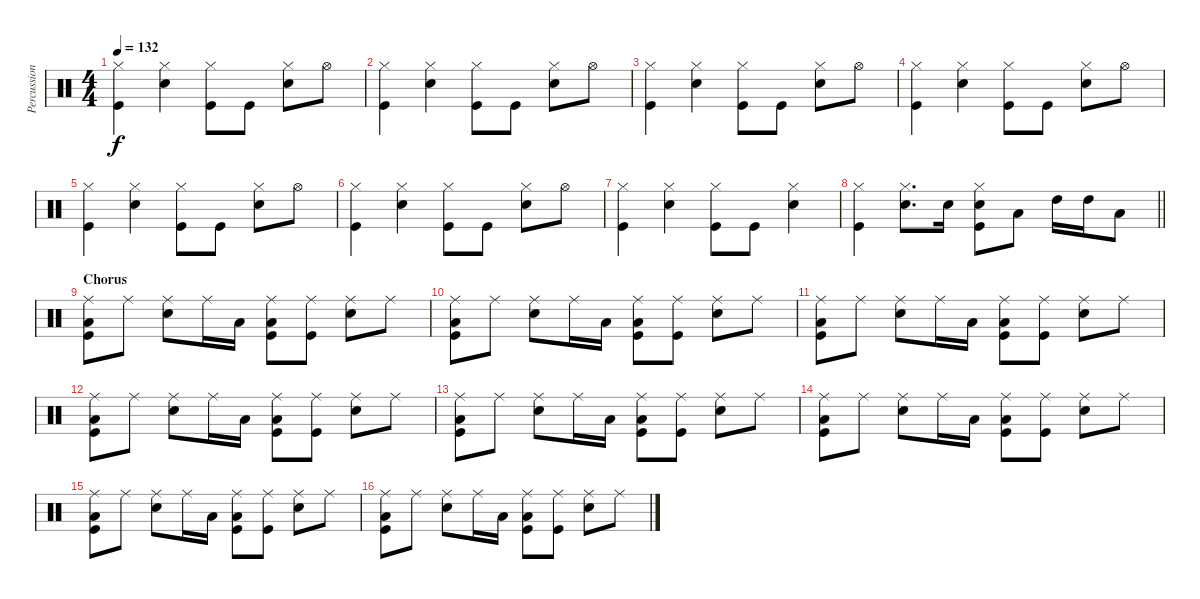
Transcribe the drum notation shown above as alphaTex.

\track ("Percussion" "Percussion") {instrument percussion}
\staff {score}
\articulation defaults
\ts (4 4)
\tempo 132
\clef neutral
\ks c
("Hi-Hat (closed)" "Kick (hit)").4{dy f} ("Hi-Hat (closed)" "Snare (hit) 2").4 ("Hi-Hat (closed)" "Kick (hit)").8 "Kick (hit)".8 ("Hi-Hat (closed)" "Snare (hit) 2").8 "Hi-Hat (open)".8 |
("Hi-Hat (closed)" "Kick (hit)").4 ("Hi-Hat (closed)" "Snare (hit) 2").4 ("Hi-Hat (closed)" "Kick (hit)").8 "Kick (hit)".8 ("Hi-Hat (closed)" "Snare (hit) 2").8 "Hi-Hat (open)".8 |
("Hi-Hat (closed)" "Kick (hit)").4 ("Hi-Hat (closed)" "Snare (hit) 2").4 ("Hi-Hat (closed)" "Kick (hit)").8 "Kick (hit)".8 ("Hi-Hat (closed)" "Snare (hit) 2").8 "Hi-Hat (open)".8 |
("Hi-Hat (closed)" "Kick (hit)").4 ("Hi-Hat (closed)" "Snare (hit) 2").4 ("Hi-Hat (closed)" "Kick (hit)").8 "Kick (hit)".8 ("Hi-Hat (closed)" "Snare (hit) 2").8 "Hi-Hat (open)".8 |
("Hi-Hat (closed)" "Kick (hit)").4 ("Hi-Hat (closed)" "Snare (hit) 2").4 ("Hi-Hat (closed)" "Kick (hit)").8 "Kick (hit)".8 ("Hi-Hat (closed)" "Snare (hit) 2").8 "Hi-Hat (open)".8 |
("Hi-Hat (closed)" "Kick (hit)").4 ("Hi-Hat (closed)" "Snare (hit) 2").4 ("Hi-Hat (closed)" "Kick (hit)").8 "Kick (hit)".8 ("Hi-Hat (closed)" "Snare (hit) 2").8 "Hi-Hat (open)".8 |
("Hi-Hat (closed)" "Kick (hit)").4 ("Hi-Hat (closed)" "Snare (hit) 2").4 ("Hi-Hat (closed)" "Kick (hit)").8 "Kick (hit)".8 ("Hi-Hat (closed)" "Snare (hit) 2").4 |
\barLineRight lightlight
("Hi-Hat (closed)" "Kick (hit)").4 ("Hi-Hat (closed)" "Snare (hit) 2").8{d} "Snare (hit) 2".16 ("Hi-Hat (closed)" "Snare (hit) 2" "Kick (hit)").8 "Low Tom (hit)".8 "High Tom (hit)".16 "High Tom (hit)".16 "Low Tom (hit)".8 |
\section ("" "Chorus")
("Ride (middle)" "Low Tom (hit)" "Kick (hit)").8 "Ride (middle)".8 ("Ride (middle)" "Snare (hit) 2").8 "Ride (middle)".16 "Low Tom (hit)".16 ("Ride (middle)" "Low Tom (hit)" "Kick (hit)").8 ("Ride (middle)" "Kick (hit)").8 ("Ride (middle)" "Snare (hit) 2").8 "Ride (middle)".8 |
("Ride (middle)" "Low Tom (hit)" "Kick (hit)").8 "Ride (middle)".8 ("Ride (middle)" "Snare (hit) 2").8 "Ride (middle)".16 "Low Tom (hit)".16 ("Ride (middle)" "Low Tom (hit)" "Kick (hit)").8 ("Ride (middle)" "Kick (hit)").8 ("Ride (middle)" "Snare (hit) 2").8 "Ride (middle)".8 |
("Ride (middle)" "Low Tom (hit)" "Kick (hit)").8 "Ride (middle)".8 ("Ride (middle)" "Snare (hit) 2").8 "Ride (middle)".16 "Low Tom (hit)".16 ("Ride (middle)" "Low Tom (hit)" "Kick (hit)").8 ("Ride (middle)" "Kick (hit)").8 ("Ride (middle)" "Snare (hit) 2").8 "Ride (middle)".8 |
("Ride (middle)" "Low Tom (hit)" "Kick (hit)").8 "Ride (middle)".8 ("Ride (middle)" "Snare (hit) 2").8 "Ride (middle)".16 "Low Tom (hit)".16 ("Ride (middle)" "Low Tom (hit)" "Kick (hit)").8 ("Ride (middle)" "Kick (hit)").8 ("Ride (middle)" "Snare (hit) 2").8 "Ride (middle)".8 |
("Ride (middle)" "Low Tom (hit)" "Kick (hit)").8 "Ride (middle)".8 ("Ride (middle)" "Snare (hit) 2").8 "Ride (middle)".16 "Low Tom (hit)".16 ("Ride (middle)" "Low Tom (hit)" "Kick (hit)").8 ("Ride (middle)" "Kick (hit)").8 ("Ride (middle)" "Snare (hit) 2").8 "Ride (middle)".8 |
("Ride (middle)" "Low Tom (hit)" "Kick (hit)").8 "Ride (middle)".8 ("Ride (middle)" "Snare (hit) 2").8 "Ride (middle)".16 "Low Tom (hit)".16 ("Ride (middle)" "Low Tom (hit)" "Kick (hit)").8 ("Ride (middle)" "Kick (hit)").8 ("Ride (middle)" "Snare (hit) 2").8 "Ride (middle)".8 |
("Ride (middle)" "Low Tom (hit)" "Kick (hit)").8 "Ride (middle)".8 ("Ride (middle)" "Snare (hit) 2").8 "Ride (middle)".16 "Low Tom (hit)".16 ("Ride (middle)" "Low Tom (hit)" "Kick (hit)").8 ("Ride (middle)" "Kick (hit)").8 ("Ride (middle)" "Snare (hit) 2").8 "Ride (middle)".8 |
("Ride (middle)" "Low Tom (hit)" "Kick (hit)").8 "Ride (middle)".8 ("Ride (middle)" "Snare (hit) 2").8 "Ride (middle)".16 "Low Tom (hit)".16 ("Ride (middle)" "Low Tom (hit)" "Kick (hit)").8 ("Ride (middle)" "Kick (hit)").8 ("Ride (middle)" "Snare (hit) 2").8 "Ride (middle)".8
